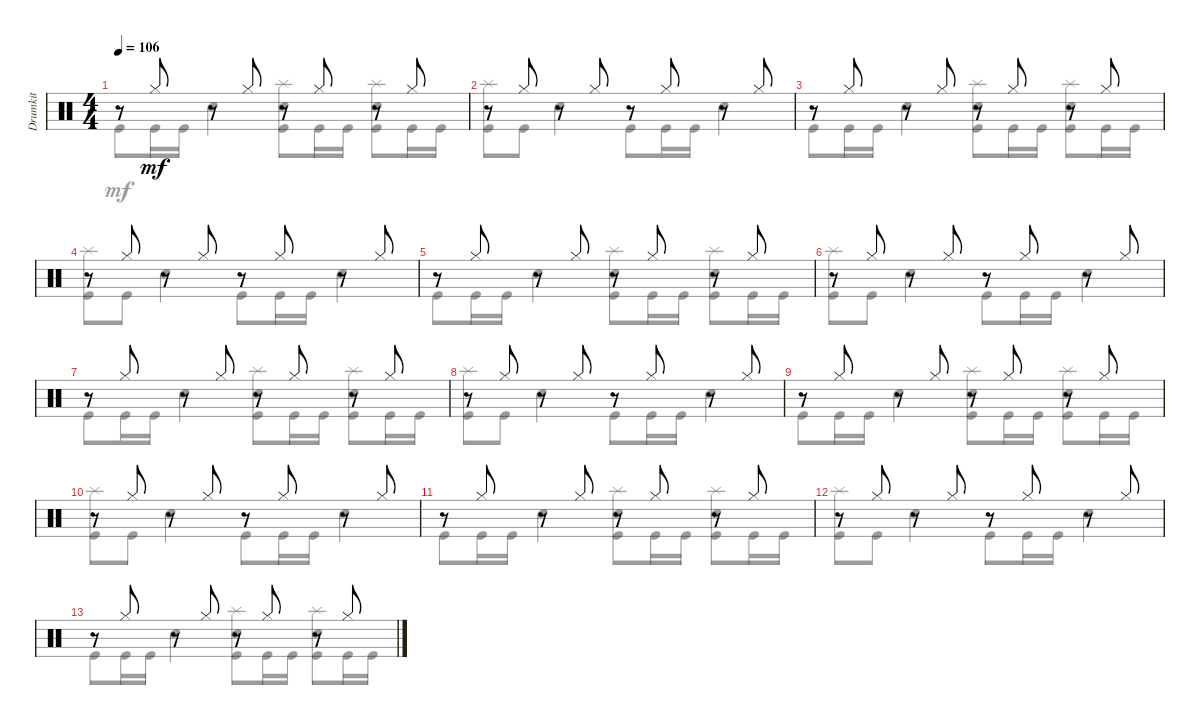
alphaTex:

\track ("Drumkit" "Drumkit") {instrument percussion}
\staff {score}
\articulation defaults
\voice
\ts (4 4)
\tempo 106
\clef neutral
\ks c
r.8{dy mf} "Hi-Hat (closed)".8 r.8 "Hi-Hat (closed)".8 r.8 "Hi-Hat (closed)".8 r.8 "Hi-Hat (closed)".8 |
r.8 "Hi-Hat (closed)".8 r.8 "Hi-Hat (closed)".8 r.8 "Hi-Hat (closed)".8 r.8 "Hi-Hat (closed)".8 |
r.8 "Hi-Hat (closed)".8 r.8 "Hi-Hat (closed)".8 r.8 "Hi-Hat (closed)".8 r.8 "Hi-Hat (closed)".8 |
r.8 "Hi-Hat (closed)".8 r.8 "Hi-Hat (closed)".8 r.8 "Hi-Hat (closed)".8 r.8 "Hi-Hat (closed)".8 |
r.8 "Hi-Hat (closed)".8 r.8 "Hi-Hat (closed)".8 r.8 "Hi-Hat (closed)".8 r.8 "Hi-Hat (closed)".8 |
r.8 "Hi-Hat (closed)".8 r.8 "Hi-Hat (closed)".8 r.8 "Hi-Hat (closed)".8 r.8 "Hi-Hat (closed)".8 |
r.8 "Hi-Hat (closed)".8 r.8 "Hi-Hat (closed)".8 r.8 "Hi-Hat (closed)".8 r.8 "Hi-Hat (closed)".8 |
r.8 "Hi-Hat (closed)".8 r.8 "Hi-Hat (closed)".8 r.8 "Hi-Hat (closed)".8 r.8 "Hi-Hat (closed)".8 |
r.8 "Hi-Hat (closed)".8 r.8 "Hi-Hat (closed)".8 r.8 "Hi-Hat (closed)".8 r.8 "Hi-Hat (closed)".8 |
r.8 "Hi-Hat (closed)".8 r.8 "Hi-Hat (closed)".8 r.8 "Hi-Hat (closed)".8 r.8 "Hi-Hat (closed)".8 |
r.8 "Hi-Hat (closed)".8 r.8 "Hi-Hat (closed)".8 r.8 "Hi-Hat (closed)".8 r.8 "Hi-Hat (closed)".8 |
r.8 "Hi-Hat (closed)".8 r.8 "Hi-Hat (closed)".8 r.8 "Hi-Hat (closed)".8 r.8 "Hi-Hat (closed)".8 |
r.8 "Hi-Hat (closed)".8 r.8 "Hi-Hat (closed)".8 r.8 "Hi-Hat (closed)".8 r.8 "Hi-Hat (closed)".8
\voice
\clef neutral
\ottava regular
\simile none
\ks c "Kick (hit)".8{dy mf} "Kick (hit)".16 "Kick (hit)".16 "Snare (hit) 2".4
("Kick (hit)" "Snare (hit) 2" "Splash (hit)").8 "Kick (hit)".16 "Kick (hit)".16 ("Kick (hit)" "Snare (hit) 2" "Splash (hit)").8 "Kick (hit)".16 "Kick (hit)".16 |
("Kick (hit)" "Splash (hit)").8 "Kick (hit)".8 "Snare (hit) 2".4 "Kick (hit)".8 "Kick (hit)".16 "Kick (hit)".16 "Snare (hit) 2".4 |
"Kick (hit)".8 "Kick (hit)".16 "Kick (hit)".16 "Snare (hit) 2".4 ("Kick (hit)" "Snare (hit) 2" "Splash (hit)").8 "Kick (hit)".16 "Kick (hit)".16 ("Kick (hit)" "Snare (hit) 2" "Splash (hit)").8 "Kick (hit)".16 "Kick (hit)".16 |
("Kick (hit)" "Splash (hit)").8 "Kick (hit)".8 "Snare (hit) 2".4 "Kick (hit)".8 "Kick (hit)".16 "Kick (hit)".16 "Snare (hit) 2".4 |
"Kick (hit)".8 "Kick (hit)".16 "Kick (hit)".16 "Snare (hit) 2".4 ("Kick (hit)" "Snare (hit) 2" "Splash (hit)").8 "Kick (hit)".16 "Kick (hit)".16 ("Kick (hit)" "Snare (hit) 2" "Splash (hit)").8 "Kick (hit)".16 "Kick (hit)".16 |
("Kick (hit)" "Splash (hit)").8 "Kick (hit)".8 "Snare (hit) 2".4 "Kick (hit)".8 "Kick (hit)".16 "Kick (hit)".16 "Snare (hit) 2".4 |
"Kick (hit)".8 "Kick (hit)".16 "Kick (hit)".16 "Snare (hit) 2".4 ("Kick (hit)" "Snare (hit) 2" "Splash (hit)").8 "Kick (hit)".16 "Kick (hit)".16 ("Kick (hit)" "Snare (hit) 2" "Splash (hit)").8 "Kick (hit)".16 "Kick (hit)".16 |
("Kick (hit)" "Splash (hit)").8 "Kick (hit)".8 "Snare (hit) 2".4 "Kick (hit)".8 "Kick (hit)".16 "Kick (hit)".16 "Snare (hit) 2".4 |
"Kick (hit)".8 "Kick (hit)".16 "Kick (hit)".16 "Snare (hit) 2".4 ("Kick (hit)" "Snare (hit) 2" "Splash (hit)").8 "Kick (hit)".16 "Kick (hit)".16 ("Kick (hit)" "Snare (hit) 2" "Splash (hit)").8 "Kick (hit)".16 "Kick (hit)".16 |
("Kick (hit)" "Splash (hit)").8 "Kick (hit)".8 "Snare (hit) 2".4 "Kick (hit)".8 "Kick (hit)".16 "Kick (hit)".16 "Snare (hit) 2".4 |
"Kick (hit)".8 "Kick (hit)".16 "Kick (hit)".16 "Snare (hit) 2".4 ("Kick (hit)" "Snare (hit) 2" "Splash (hit)").8 "Kick (hit)".16 "Kick (hit)".16 ("Kick (hit)" "Snare (hit) 2" "Splash (hit)").8 "Kick (hit)".16 "Kick (hit)".16 |
("Kick (hit)" "Splash (hit)").8 "Kick (hit)".8 "Snare (hit) 2".4 "Kick (hit)".8 "Kick (hit)".16 "Kick (hit)".16 "Snare (hit) 2".4 |
"Kick (hit)".8 "Kick (hit)".16 "Kick (hit)".16 "Snare (hit) 2".4 ("Kick (hit)" "Snare (hit) 2" "Splash (hit)").8 "Kick (hit)".16 "Kick (hit)".16 ("Kick (hit)" "Snare (hit) 2" "Splash (hit)").8 "Kick (hit)".16 "Kick (hit)".16
